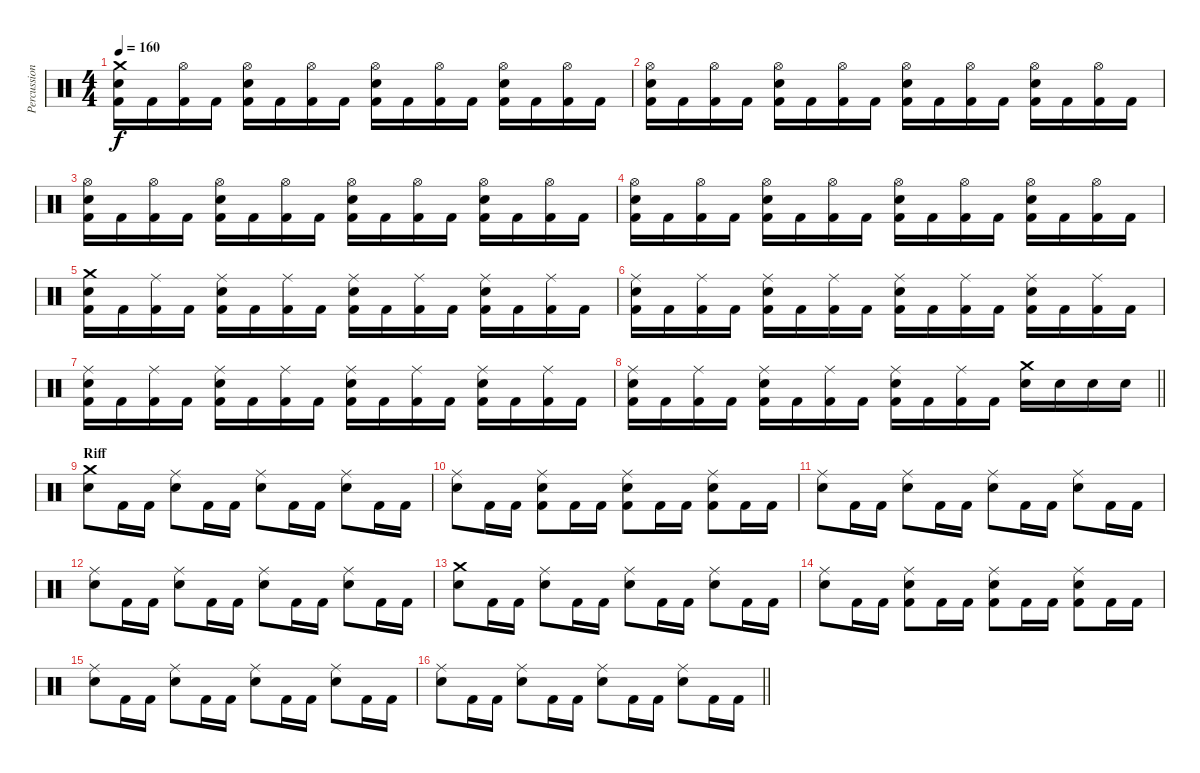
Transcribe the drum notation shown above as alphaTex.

\track ("Percussion" "Percussion") {instrument percussion}
\staff {score}
\articulation defaults
\ts (4 4)
\tempo 160
\clef neutral
\ks c
("Crash medium (hit)" "Snare (hit) 2" "Kick (hit) 2").16{dy f} "Kick (hit) 2".16 ("Hi-Hat (open)" "Kick (hit) 2").16 "Kick (hit) 2".16 ("Hi-Hat (open)" "Snare (hit) 2" "Kick (hit) 2").16 "Kick (hit) 2".16 ("Hi-Hat (open)" "Kick (hit) 2").16 "Kick (hit) 2".16 ("Hi-Hat (open)" "Snare (hit) 2" "Kick (hit) 2").16 "Kick (hit) 2".16 ("Hi-Hat (open)" "Kick (hit) 2").16 "Kick (hit) 2".16 ("Hi-Hat (open)" "Snare (hit) 2" "Kick (hit) 2").16 "Kick (hit) 2".16 ("Hi-Hat (open)" "Kick (hit) 2").16 "Kick (hit) 2".16 |
("Hi-Hat (open)" "Snare (hit) 2" "Kick (hit) 2").16 "Kick (hit) 2".16 ("Hi-Hat (open)" "Kick (hit) 2").16 "Kick (hit) 2".16 ("Hi-Hat (open)" "Snare (hit) 2" "Kick (hit) 2").16 "Kick (hit) 2".16 ("Hi-Hat (open)" "Kick (hit) 2").16 "Kick (hit) 2".16 ("Hi-Hat (open)" "Snare (hit) 2" "Kick (hit) 2").16 "Kick (hit) 2".16 ("Hi-Hat (open)" "Kick (hit) 2").16 "Kick (hit) 2".16 ("Hi-Hat (open)" "Snare (hit) 2" "Kick (hit) 2").16 "Kick (hit) 2".16 ("Hi-Hat (open)" "Kick (hit) 2").16 "Kick (hit) 2".16 |
("Hi-Hat (open)" "Snare (hit) 2" "Kick (hit) 2").16 "Kick (hit) 2".16 ("Hi-Hat (open)" "Kick (hit) 2").16 "Kick (hit) 2".16 ("Hi-Hat (open)" "Snare (hit) 2" "Kick (hit) 2").16 "Kick (hit) 2".16 ("Hi-Hat (open)" "Kick (hit) 2").16 "Kick (hit) 2".16 ("Hi-Hat (open)" "Snare (hit) 2" "Kick (hit) 2").16 "Kick (hit) 2".16 ("Hi-Hat (open)" "Kick (hit) 2").16 "Kick (hit) 2".16 ("Hi-Hat (open)" "Snare (hit) 2" "Kick (hit) 2").16 "Kick (hit) 2".16 ("Hi-Hat (open)" "Kick (hit) 2").16 "Kick (hit) 2".16 |
("Hi-Hat (open)" "Snare (hit) 2" "Kick (hit) 2").16 "Kick (hit) 2".16 ("Hi-Hat (open)" "Kick (hit) 2").16 "Kick (hit) 2".16 ("Hi-Hat (open)" "Snare (hit) 2" "Kick (hit) 2").16 "Kick (hit) 2".16 ("Hi-Hat (open)" "Kick (hit) 2").16 "Kick (hit) 2".16 ("Hi-Hat (open)" "Snare (hit) 2" "Kick (hit) 2").16 "Kick (hit) 2".16 ("Hi-Hat (open)" "Kick (hit) 2").16 "Kick (hit) 2".16 ("Hi-Hat (open)" "Snare (hit) 2" "Kick (hit) 2").16 "Kick (hit) 2".16 ("Hi-Hat (open)" "Kick (hit) 2").16 "Kick (hit) 2".16 |
("Crash medium (hit)" "Snare (hit) 2" "Kick (hit) 2").16 "Kick (hit) 2".16 ("Ride (middle)" "Kick (hit) 2").16 "Kick (hit) 2".16 ("Ride (middle)" "Snare (hit) 2" "Kick (hit) 2").16 "Kick (hit) 2".16 ("Ride (middle)" "Kick (hit) 2").16 "Kick (hit) 2".16 ("Ride (middle)" "Snare (hit) 2" "Kick (hit) 2").16 "Kick (hit) 2".16 ("Ride (middle)" "Kick (hit) 2").16 "Kick (hit) 2".16 ("Ride (middle)" "Snare (hit) 2" "Kick (hit) 2").16 "Kick (hit) 2".16 ("Ride (middle)" "Kick (hit) 2").16 "Kick (hit) 2".16 |
("Ride (middle)" "Snare (hit) 2" "Kick (hit) 2").16 "Kick (hit) 2".16 ("Ride (middle)" "Kick (hit) 2").16 "Kick (hit) 2".16 ("Ride (middle)" "Snare (hit) 2" "Kick (hit) 2").16 "Kick (hit) 2".16 ("Ride (middle)" "Kick (hit) 2").16 "Kick (hit) 2".16 ("Ride (middle)" "Snare (hit) 2" "Kick (hit) 2").16 "Kick (hit) 2".16 ("Ride (middle)" "Kick (hit) 2").16 "Kick (hit) 2".16 ("Ride (middle)" "Snare (hit) 2" "Kick (hit) 2").16 "Kick (hit) 2".16 ("Ride (middle)" "Kick (hit) 2").16 "Kick (hit) 2".16 |
("Ride (middle)" "Snare (hit) 2" "Kick (hit) 2").16 "Kick (hit) 2".16 ("Ride (middle)" "Kick (hit) 2").16 "Kick (hit) 2".16 ("Ride (middle)" "Snare (hit) 2" "Kick (hit) 2").16 "Kick (hit) 2".16 ("Ride (middle)" "Kick (hit) 2").16 "Kick (hit) 2".16 ("Ride (middle)" "Snare (hit) 2" "Kick (hit) 2").16 "Kick (hit) 2".16 ("Ride (middle)" "Kick (hit) 2").16 "Kick (hit) 2".16 ("Ride (middle)" "Snare (hit) 2" "Kick (hit) 2").16 "Kick (hit) 2".16 ("Ride (middle)" "Kick (hit) 2").16 "Kick (hit) 2".16 |
\barLineRight lightlight
("Ride (middle)" "Snare (hit) 2" "Kick (hit) 2").16 "Kick (hit) 2".16 ("Ride (middle)" "Kick (hit) 2").16 "Kick (hit) 2".16 ("Ride (middle)" "Snare (hit) 2" "Kick (hit) 2").16 "Kick (hit) 2".16 ("Ride (middle)" "Kick (hit) 2").16 "Kick (hit) 2".16 ("Ride (middle)" "Snare (hit) 2" "Kick (hit) 2").16 "Kick (hit) 2".16 ("Ride (middle)" "Kick (hit) 2").16 "Kick (hit) 2".16 ("Crash medium (hit)" "Snare (hit) 2").16 "Snare (hit) 2".16 "Snare (hit) 2".16 "Snare (hit) 2".16 |
\section ("" "Riff")
("Crash medium (hit)" "Snare (hit) 2").8 "Kick (hit) 2".16 "Kick (hit) 2".16 ("Ride (middle)" "Snare (hit) 2").8 "Kick (hit) 2".16 "Kick (hit) 2".16 ("Ride (middle)" "Snare (hit) 2").8 "Kick (hit) 2".16 "Kick (hit) 2".16 ("Ride (middle)" "Snare (hit) 2").8 "Kick (hit) 2".16 "Kick (hit) 2".16 |
("Ride (middle)" "Snare (hit) 2").8 "Kick (hit) 2".16 "Kick (hit) 2".16 ("Ride (middle)" "Snare (hit) 2" "Kick (hit) 2").8 "Kick (hit) 2".16 "Kick (hit) 2".16 ("Ride (middle)" "Snare (hit) 2" "Kick (hit) 2").8 "Kick (hit) 2".16 "Kick (hit) 2".16 ("Ride (middle)" "Snare (hit) 2" "Kick (hit) 2").8 "Kick (hit) 2".16 "Kick (hit) 2".16 |
("Ride (middle)" "Snare (hit) 2").8 "Kick (hit) 2".16 "Kick (hit) 2".16 ("Ride (middle)" "Snare (hit) 2").8 "Kick (hit) 2".16 "Kick (hit) 2".16 ("Ride (middle)" "Snare (hit) 2").8 "Kick (hit) 2".16 "Kick (hit) 2".16 ("Ride (middle)" "Snare (hit) 2").8 "Kick (hit) 2".16 "Kick (hit) 2".16 |
("Ride (middle)" "Snare (hit) 2").8 "Kick (hit) 2".16 "Kick (hit) 2".16 ("Ride (middle)" "Snare (hit) 2").8 "Kick (hit) 2".16 "Kick (hit) 2".16 ("Ride (middle)" "Snare (hit) 2").8 "Kick (hit) 2".16 "Kick (hit) 2".16 ("Ride (middle)" "Snare (hit) 2").8 "Kick (hit) 2".16 "Kick (hit) 2".16 |
("Crash medium (hit)" "Snare (hit) 2").8 "Kick (hit) 2".16 "Kick (hit) 2".16 ("Ride (middle)" "Snare (hit) 2").8 "Kick (hit) 2".16 "Kick (hit) 2".16 ("Ride (middle)" "Snare (hit) 2").8 "Kick (hit) 2".16 "Kick (hit) 2".16 ("Ride (middle)" "Snare (hit) 2").8 "Kick (hit) 2".16 "Kick (hit) 2".16 |
("Ride (middle)" "Snare (hit) 2").8 "Kick (hit) 2".16 "Kick (hit) 2".16 ("Ride (middle)" "Snare (hit) 2" "Kick (hit) 2").8 "Kick (hit) 2".16 "Kick (hit) 2".16 ("Ride (middle)" "Snare (hit) 2" "Kick (hit) 2").8 "Kick (hit) 2".16 "Kick (hit) 2".16 ("Ride (middle)" "Snare (hit) 2" "Kick (hit) 2").8 "Kick (hit) 2".16 "Kick (hit) 2".16 |
("Ride (middle)" "Snare (hit) 2").8 "Kick (hit) 2".16 "Kick (hit) 2".16 ("Ride (middle)" "Snare (hit) 2").8 "Kick (hit) 2".16 "Kick (hit) 2".16 ("Ride (middle)" "Snare (hit) 2").8 "Kick (hit) 2".16 "Kick (hit) 2".16 ("Ride (middle)" "Snare (hit) 2").8 "Kick (hit) 2".16 "Kick (hit) 2".16 |
\barLineRight lightlight
("Ride (middle)" "Snare (hit) 2").8 "Kick (hit) 2".16 "Kick (hit) 2".16 ("Ride (middle)" "Snare (hit) 2").8 "Kick (hit) 2".16 "Kick (hit) 2".16 ("Ride (middle)" "Snare (hit) 2").8 "Kick (hit) 2".16 "Kick (hit) 2".16 ("Ride (middle)" "Snare (hit) 2").8 "Kick (hit) 2".16 "Kick (hit) 2".16
